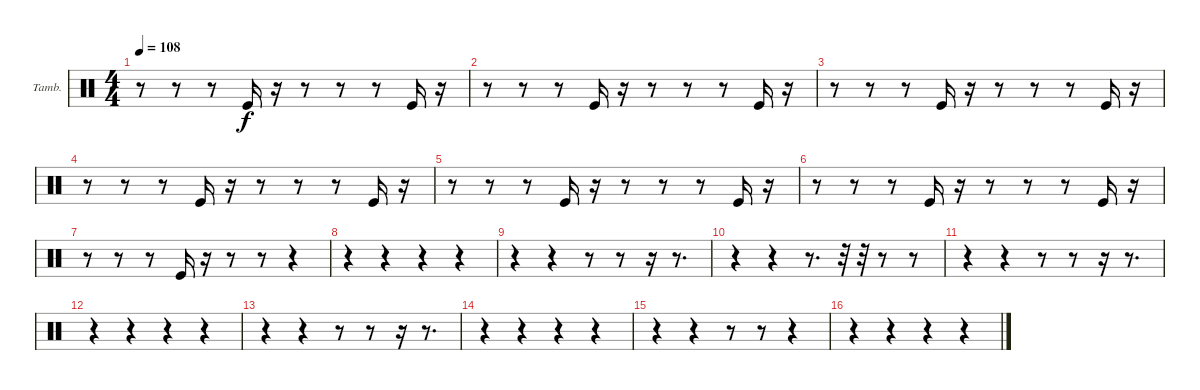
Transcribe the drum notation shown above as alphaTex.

\bracketExtendMode groupsimilarinstruments
\firstSystemTrackNameOrientation horizontal
\otherSystemsTrackNameOrientation horizontal
\track ("Tambourine" "Tamb.") {instrument percussion}
\staff {score}
\articulation defaults
\ts (4 4)
\tempo 108
\clef neutral
\ks c
r.8{dy f} r.8 r.8 "Kick (hit)".16 r.16 r.8 r.8 r.8 "Kick (hit)".16 r.16 |
r.8 r.8 r.8 "Kick (hit)".16 r.16 r.8 r.8 r.8 "Kick (hit)".16 r.16 |
r.8 r.8 r.8 "Kick (hit)".16 r.16 r.8 r.8 r.8 "Kick (hit)".16 r.16 |
r.8 r.8 r.8 "Kick (hit)".16 r.16 r.8 r.8 r.8 "Kick (hit)".16 r.16 |
r.8 r.8 r.8 "Kick (hit)".16 r.16 r.8 r.8 r.8 "Kick (hit)".16 r.16 |
r.8 r.8 r.8 "Kick (hit)".16 r.16 r.8 r.8 r.8 "Kick (hit)".16 r.16 |
r.8 r.8 r.8 "Kick (hit)".16 r.16 r.8 r.8 r.4 |
r.4 r.4 r.4 r.4 |
r.4 r.4 r.8 r.8 r.16 r.8{d} |
r.4 r.4 r.8{d} r.32 r.32 r.8 r.8 |
r.4 r.4 r.8 r.8 r.16 r.8{d} |
r.4 r.4 r.4 r.4 |
r.4 r.4 r.8 r.8 r.16 r.8{d} |
r.4 r.4 r.4 r.4 |
r.4 r.4 r.8 r.8 r.4 |
r.4 r.4 r.4 r.4
